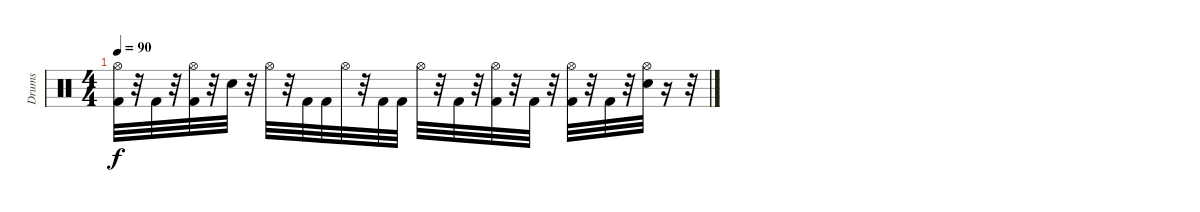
\track ("Drums" "Drums") {instrument percussion}
\staff {score}
\articulation defaults
\ts (4 4)
\tempo 90
\clef neutral
\ks c
("Kick (hit) 2" "Hi-Hat (open)").32{dy f} r.32 "Kick (hit) 2".32 r.32 ("Kick (hit) 2" "Hi-Hat (open)").32 r.32 "Snare (hit) 2".32 r.32 "Hi-Hat (open)".32 r.32 "Kick (hit) 2".32 "Kick (hit) 2".32 "Hi-Hat (open)".32 r.32 "Kick (hit) 2".32 "Kick (hit) 2".32 "Hi-Hat (open)".32 r.32 "Kick (hit) 2".32 r.32 ("Kick (hit) 2" "Hi-Hat (open)").32 r.32 "Kick (hit) 2".32 r.32 ("Kick (hit) 2" "Hi-Hat (open)").32 r.32 "Kick (hit) 2".32 r.32 ("Snare (hit) 2" "Hi-Hat (open)").32 r.16 r.32
